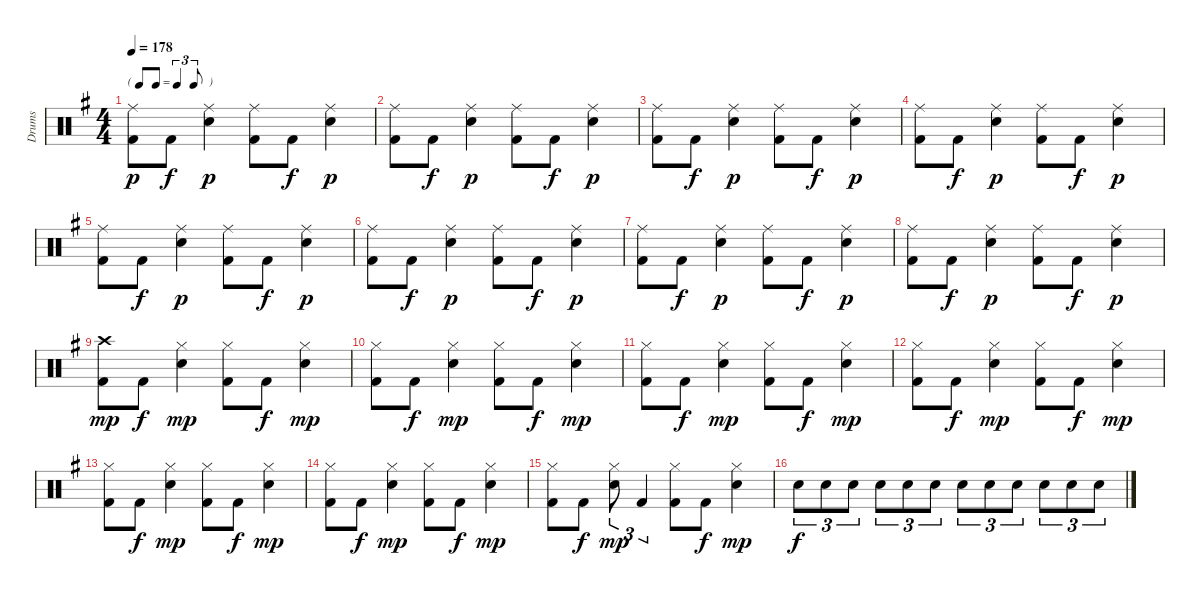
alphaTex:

\track ("Drums" "Drums") {instrument percussion}
\staff {score}
\articulation defaults
\ts (4 4)
\tf triplet8th
\tempo 178
\clef neutral
\ks g
("Kick (hit) 2" "Ride (middle)").8{dy p} "Kick (hit) 2".8{dy f} ("Electric Snare (hit)" "Ride (middle)").4{dy p} ("Kick (hit) 2" "Ride (middle)").8 "Kick (hit) 2".8{dy f} ("Electric Snare (hit)" "Ride (middle)").4{dy p} |
("Kick (hit) 2" "Ride (middle)").8 "Kick (hit) 2".8{dy f} ("Electric Snare (hit)" "Ride (middle)").4{dy p} ("Kick (hit) 2" "Ride (middle)").8 "Kick (hit) 2".8{dy f} ("Electric Snare (hit)" "Ride (middle)").4{dy p} |
("Kick (hit) 2" "Ride (middle)").8 "Kick (hit) 2".8{dy f} ("Electric Snare (hit)" "Ride (middle)").4{dy p} ("Kick (hit) 2" "Ride (middle)").8 "Kick (hit) 2".8{dy f} ("Electric Snare (hit)" "Ride (middle)").4{dy p} |
("Kick (hit) 2" "Ride (middle)").8 "Kick (hit) 2".8{dy f} ("Electric Snare (hit)" "Ride (middle)").4{dy p} ("Kick (hit) 2" "Ride (middle)").8 "Kick (hit) 2".8{dy f} ("Electric Snare (hit)" "Ride (middle)").4{dy p} |
("Kick (hit) 2" "Ride (middle)").8 "Kick (hit) 2".8{dy f} ("Electric Snare (hit)" "Ride (middle)").4{dy p} ("Kick (hit) 2" "Ride (middle)").8 "Kick (hit) 2".8{dy f} ("Electric Snare (hit)" "Ride (middle)").4{dy p} |
("Kick (hit) 2" "Ride (middle)").8 "Kick (hit) 2".8{dy f} ("Electric Snare (hit)" "Ride (middle)").4{dy p} ("Kick (hit) 2" "Ride (middle)").8 "Kick (hit) 2".8{dy f} ("Electric Snare (hit)" "Ride (middle)").4{dy p} |
("Kick (hit) 2" "Ride (middle)").8 "Kick (hit) 2".8{dy f} ("Electric Snare (hit)" "Ride (middle)").4{dy p} ("Kick (hit) 2" "Ride (middle)").8 "Kick (hit) 2".8{dy f} ("Electric Snare (hit)" "Ride (middle)").4{dy p} |
("Kick (hit) 2" "Ride (middle)").8 "Kick (hit) 2".8{dy f} ("Electric Snare (hit)" "Ride (middle)").4{dy p} ("Kick (hit) 2" "Ride (middle)").8 "Kick (hit) 2".8{dy f} ("Electric Snare (hit)" "Ride (middle)").4{dy p} |
("Kick (hit) 2" "Crash high (hit)").8{dy mp} "Kick (hit) 2".8{dy f} ("Electric Snare (hit)" "Hi-Hat (closed)").4{dy mp} ("Kick (hit) 2" "Hi-Hat (closed)").8 "Kick (hit) 2".8{dy f} ("Electric Snare (hit)" "Hi-Hat (closed)").4{dy mp} |
("Kick (hit) 2" "Hi-Hat (closed)").8 "Kick (hit) 2".8{dy f} ("Electric Snare (hit)" "Hi-Hat (closed)").4{dy mp} ("Kick (hit) 2" "Hi-Hat (closed)").8 "Kick (hit) 2".8{dy f} ("Electric Snare (hit)" "Hi-Hat (closed)").4{dy mp} |
("Kick (hit) 2" "Hi-Hat (closed)").8 "Kick (hit) 2".8{dy f} ("Electric Snare (hit)" "Hi-Hat (closed)").4{dy mp} ("Kick (hit) 2" "Hi-Hat (closed)").8 "Kick (hit) 2".8{dy f} ("Electric Snare (hit)" "Hi-Hat (closed)").4{dy mp} |
("Kick (hit) 2" "Hi-Hat (closed)").8 "Kick (hit) 2".8{dy f} ("Electric Snare (hit)" "Hi-Hat (closed)").4{dy mp} ("Kick (hit) 2" "Hi-Hat (closed)").8 "Kick (hit) 2".8{dy f} ("Electric Snare (hit)" "Hi-Hat (closed)").4{dy mp} |
("Kick (hit) 2" "Hi-Hat (closed)").8 "Kick (hit) 2".8{dy f} ("Electric Snare (hit)" "Hi-Hat (closed)").4{dy mp} ("Kick (hit) 2" "Hi-Hat (closed)").8 "Kick (hit) 2".8{dy f} ("Electric Snare (hit)" "Hi-Hat (closed)").4{dy mp} |
("Kick (hit) 2" "Hi-Hat (closed)").8 "Kick (hit) 2".8{dy f} ("Electric Snare (hit)" "Hi-Hat (closed)").4{dy mp} ("Kick (hit) 2" "Hi-Hat (closed)").8 "Kick (hit) 2".8{dy f} ("Electric Snare (hit)" "Hi-Hat (closed)").4{dy mp} |
("Kick (hit) 2" "Hi-Hat (closed)").8 "Kick (hit) 2".8{dy f} ("Electric Snare (hit)" "Hi-Hat (closed)").8{tu (3 2) dy mp} "Kick (hit) 2".4{tu (3 2)} ("Kick (hit) 2" "Hi-Hat (closed)").8 "Kick (hit) 2".8{dy f} ("Electric Snare (hit)" "Hi-Hat (closed)").4{dy mp} |
"Electric Snare (hit)".8{tu (3 2) dy f} "Electric Snare (hit)".8{tu (3 2)} "Electric Snare (hit)".8{tu (3 2)} "Electric Snare (hit)".8{tu (3 2)} "Electric Snare (hit)".8{tu (3 2)} "Electric Snare (hit)".8{tu (3 2)} "Electric Snare (hit)".8{tu (3 2)} "Electric Snare (hit)".8{tu (3 2)} "Electric Snare (hit)".8{tu (3 2)} "Electric Snare (hit)".8{tu (3 2)} "Electric Snare (hit)".8{tu (3 2)} "Electric Snare (hit)".8{tu (3 2)}
